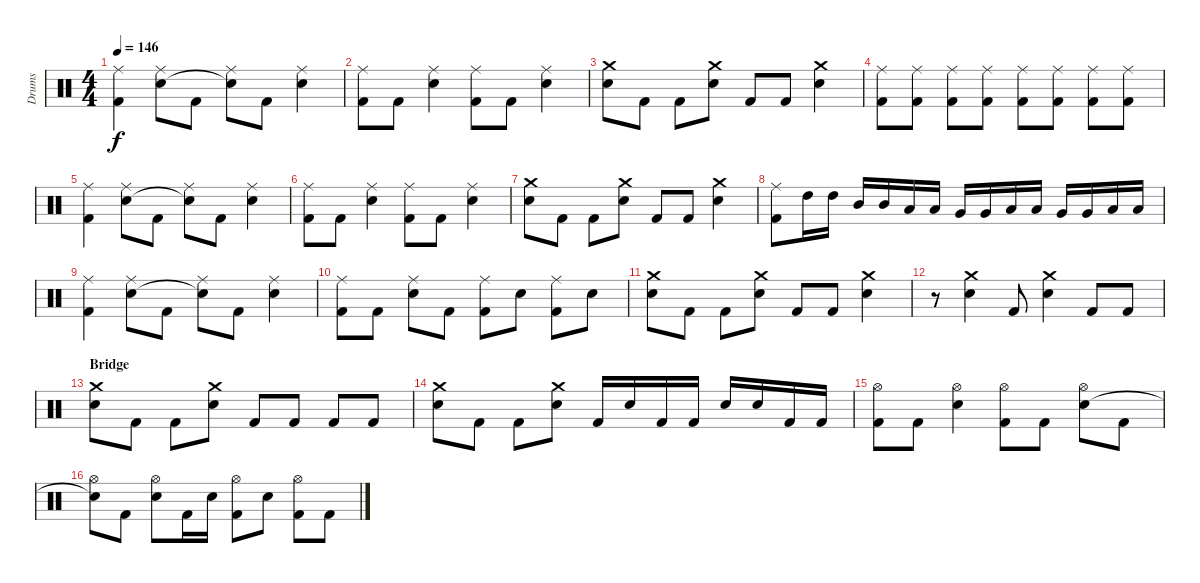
\track ("Drums" "Drums") {instrument percussion}
\staff {score}
\articulation defaults
\ts (4 4)
\tempo 146
\clef neutral
\ks c
("Ride (middle)" "Kick (hit) 2").4{dy f} ("Ride (middle)" "Electric Snare (hit)").8 "Kick (hit) 2".8 ("Ride (middle)" "Snare (hit)"{t}).8 "Kick (hit) 2".8 ("Ride (middle)" "Electric Snare (hit)").4 |
("Ride (middle)" "Kick (hit) 2").8 "Kick (hit) 2".8 ("Ride (middle)" "Electric Snare (hit)").4 ("Ride (middle)" "Kick (hit) 2").8 "Kick (hit) 2".8 ("Ride (middle)" "Electric Snare (hit)").4 |
("Crash medium (hit)" "Electric Snare (hit)").8 "Kick (hit) 2".8 "Kick (hit) 2".8 ("Crash medium (hit)" "Electric Snare (hit)").8 "Kick (hit) 2".8 "Kick (hit) 2".8 ("Crash medium (hit)" "Electric Snare (hit)").4 |
("Ride (middle)" "Kick (hit) 2").8 ("Ride (middle)" "Kick (hit) 2").8 ("Ride (middle)" "Kick (hit) 2").8 ("Ride (middle)" "Kick (hit) 2").8 ("Ride (middle)" "Kick (hit) 2").8 ("Ride (middle)" "Kick (hit) 2").8 ("Ride (middle)" "Kick (hit) 2").8 ("Ride (middle)" "Kick (hit) 2").8 |
("Ride (middle)" "Kick (hit) 2").4 ("Ride (middle)" "Electric Snare (hit)").8 "Kick (hit) 2".8 ("Ride (middle)" "Snare (hit)"{t}).8 "Kick (hit) 2".8 ("Ride (middle)" "Electric Snare (hit)").4 |
("Ride (middle)" "Kick (hit) 2").8 "Kick (hit) 2".8 ("Ride (middle)" "Electric Snare (hit)").4 ("Ride (middle)" "Kick (hit) 2").8 "Kick (hit) 2".8 ("Ride (middle)" "Electric Snare (hit)").4 |
("Crash medium (hit)" "Electric Snare (hit)").8 "Kick (hit) 2".8 "Kick (hit) 2".8 ("Crash medium (hit)" "Electric Snare (hit)").8 "Kick (hit) 2".8 "Kick (hit) 2".8 ("Crash medium (hit)" "Electric Snare (hit)").4 |
("Ride (middle)" "Kick (hit) 2").8 "High Tom (hit)".16 "High Tom (hit)".16 "Mid Tom (hit)".16 "Mid Tom (hit)".16 "Low Tom (hit)".16 "Low Tom (hit)".16 "Very Low Tom (hit)".16 "Very Low Tom (hit)".16 "Low Floor Tom (hit)".16 "Low Floor Tom (hit)".16 "Very Low Tom (hit)".16 "Very Low Tom (hit)".16 "Low Tom (hit)".16 "Low Tom (hit)".16 |
("Ride (middle)" "Kick (hit) 2").4 ("Ride (middle)" "Electric Snare (hit)").8 "Kick (hit) 2".8 ("Ride (middle)" "Snare (hit)"{t}).8 "Kick (hit) 2".8 ("Ride (middle)" "Electric Snare (hit)").4 |
("Ride (middle)" "Kick (hit) 2").8 "Kick (hit) 2".8 ("Ride (middle)" "Electric Snare (hit)").8 "Kick (hit) 2".8 ("Ride (middle)" "Kick (hit) 2").8 "Electric Snare (hit)".8 ("Ride (middle)" "Kick (hit) 2").8 "Electric Snare (hit)".8 |
("Crash medium (hit)" "Electric Snare (hit)").8 "Kick (hit) 2".8 "Kick (hit) 2".8 ("Crash medium (hit)" "Electric Snare (hit)").8 "Kick (hit) 2".8 "Kick (hit) 2".8 ("Crash medium (hit)" "Electric Snare (hit)").4 |
r.8 ("Crash medium (hit)" "Electric Snare (hit)").4 "Kick (hit) 2".8 ("Crash medium (hit)" "Electric Snare (hit)").4 "Kick (hit) 2".8 "Kick (hit) 2".8 |
\section ("" "Bridge")
("Crash medium (hit)" "Electric Snare (hit)").8 "Kick (hit) 2".8 "Kick (hit) 2".8 ("Crash medium (hit)" "Electric Snare (hit)").8 "Kick (hit) 2".8 "Kick (hit) 2".8 "Kick (hit) 2".8 "Kick (hit) 2".8 |
("Crash medium (hit)" "Electric Snare (hit)").8 "Kick (hit) 2".8 "Kick (hit) 2".8 ("Crash medium (hit)" "Electric Snare (hit)").8 "Kick (hit) 2".16 "Electric Snare (hit)".16 "Kick (hit) 2".16 "Kick (hit) 2".16 "Electric Snare (hit)".16 "Electric Snare (hit)".16 "Kick (hit) 2".16 "Kick (hit) 2".16 |
("Hi-Hat (open)" "Kick (hit) 2").8 "Kick (hit) 2".8 ("Hi-Hat (open)" "Electric Snare (hit)").4 ("Hi-Hat (open)" "Kick (hit) 2").8 "Kick (hit) 2".8 ("Hi-Hat (open)" "Electric Snare (hit)").8 "Kick (hit) 2".8 |
("Hi-Hat (open)" "Snare (hit)"{t}).8 "Kick (hit) 2".8 ("Hi-Hat (open)" "Electric Snare (hit)").8 "Kick (hit) 2".16 "Electric Snare (hit)".16 ("Hi-Hat (open)" "Kick (hit) 2").8 "Electric Snare (hit)".8 ("Hi-Hat (open)" "Kick (hit) 2").8 "Kick (hit) 2".8
